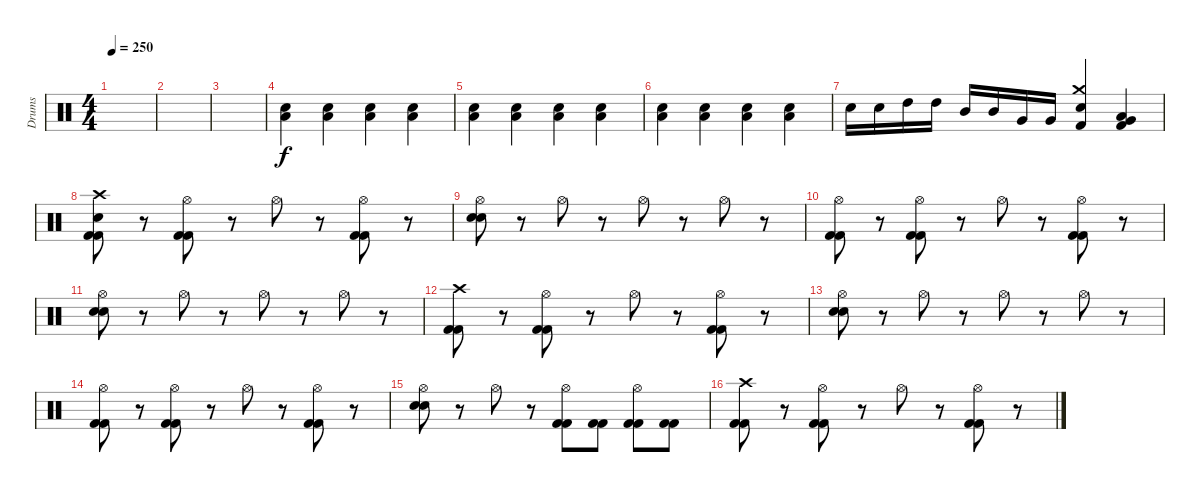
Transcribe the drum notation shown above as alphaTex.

\track ("Drums" "Drums") {instrument percussion}
\staff {score}
\articulation defaults
\ts (4 4)
\tempo 250
\clef neutral
\ks c
|
|
|
("Low Floor Tom (hit)" "Electric Snare (hit)").4 ("Low Floor Tom (hit)" "Electric Snare (hit)").4 ("Low Floor Tom (hit)" "Electric Snare (hit)").4 ("Low Floor Tom (hit)" "Electric Snare (hit)").4 |
("Low Floor Tom (hit)" "Electric Snare (hit)").4 ("Low Floor Tom (hit)" "Electric Snare (hit)").4 ("Low Floor Tom (hit)" "Electric Snare (hit)").4 ("Low Floor Tom (hit)" "Electric Snare (hit)").4 |
("Low Floor Tom (hit)" "Electric Snare (hit)").4 ("Low Floor Tom (hit)" "Electric Snare (hit)").4 ("Low Floor Tom (hit)" "Electric Snare (hit)").4 ("Low Floor Tom (hit)" "Electric Snare (hit)").4 |
"Electric Snare (hit)".16 "Electric Snare (hit)".16 "High Tom (hit)".16 "High Tom (hit)".16 "Mid Tom (hit)".16 "Mid Tom (hit)".16 "Very Low Tom (hit)".16 "Very Low Tom (hit)".16 ("Crash medium (hit)" "Electric Snare (hit)" "Kick (hit) 2").4 ("Low Floor Tom (hit)" "Very Low Tom (hit)" "Kick (hit) 2").4 |
("Kick (hit) 2" "Kick (hit) 2" "Electric Snare (hit)" "Crash high (hit)").8 r.8 ("Kick (hit) 2" "Kick (hit) 2" "Hi-Hat (open)").8 r.8 "Hi-Hat (open)".8 r.8 ("Kick (hit) 2" "Kick (hit) 2" "Hi-Hat (open)").8 r.8 |
("Electric Snare (hit)" "Electric Snare (hit)" "Hi-Hat (open)").8 r.8 "Hi-Hat (open)".8 r.8 "Hi-Hat (open)".8 r.8 "Hi-Hat (open)".8 r.8 |
("Kick (hit) 2" "Kick (hit) 2" "Hi-Hat (open)").8 r.8 ("Kick (hit) 2" "Kick (hit) 2" "Hi-Hat (open)").8 r.8 "Hi-Hat (open)".8 r.8 ("Kick (hit) 2" "Kick (hit) 2" "Hi-Hat (open)").8 r.8 |
("Electric Snare (hit)" "Electric Snare (hit)" "Hi-Hat (open)").8 r.8 "Hi-Hat (open)".8 r.8 "Hi-Hat (open)".8 r.8 "Hi-Hat (open)".8 r.8 |
("Kick (hit) 2" "Kick (hit) 2" "Crash high (hit)").8 r.8 ("Kick (hit) 2" "Kick (hit) 2" "Hi-Hat (open)").8 r.8 "Hi-Hat (open)".8 r.8 ("Kick (hit) 2" "Kick (hit) 2" "Hi-Hat (open)").8 r.8 |
("Electric Snare (hit)" "Electric Snare (hit)" "Hi-Hat (open)").8 r.8 "Hi-Hat (open)".8 r.8 "Hi-Hat (open)".8 r.8 "Hi-Hat (open)".8 r.8 |
("Kick (hit) 2" "Kick (hit) 2" "Hi-Hat (open)").8 r.8 ("Kick (hit) 2" "Kick (hit) 2" "Hi-Hat (open)").8 r.8 "Hi-Hat (open)".8 r.8 ("Kick (hit) 2" "Kick (hit) 2" "Hi-Hat (open)").8 r.8 |
("Electric Snare (hit)" "Electric Snare (hit)" "Hi-Hat (open)").8 r.8 "Hi-Hat (open)".8 r.8 ("Kick (hit) 2" "Kick (hit) 2" "Hi-Hat (open)").8 ("Kick (hit) 2" "Kick (hit) 2").8 ("Kick (hit) 2" "Kick (hit) 2" "Hi-Hat (open)").8 ("Kick (hit) 2" "Kick (hit) 2").8 |
("Kick (hit) 2" "Kick (hit) 2" "Crash high (hit)").8 r.8 ("Kick (hit) 2" "Kick (hit) 2" "Hi-Hat (open)").8 r.8 "Hi-Hat (open)".8 r.8 ("Kick (hit) 2" "Kick (hit) 2" "Hi-Hat (open)").8 r.8
